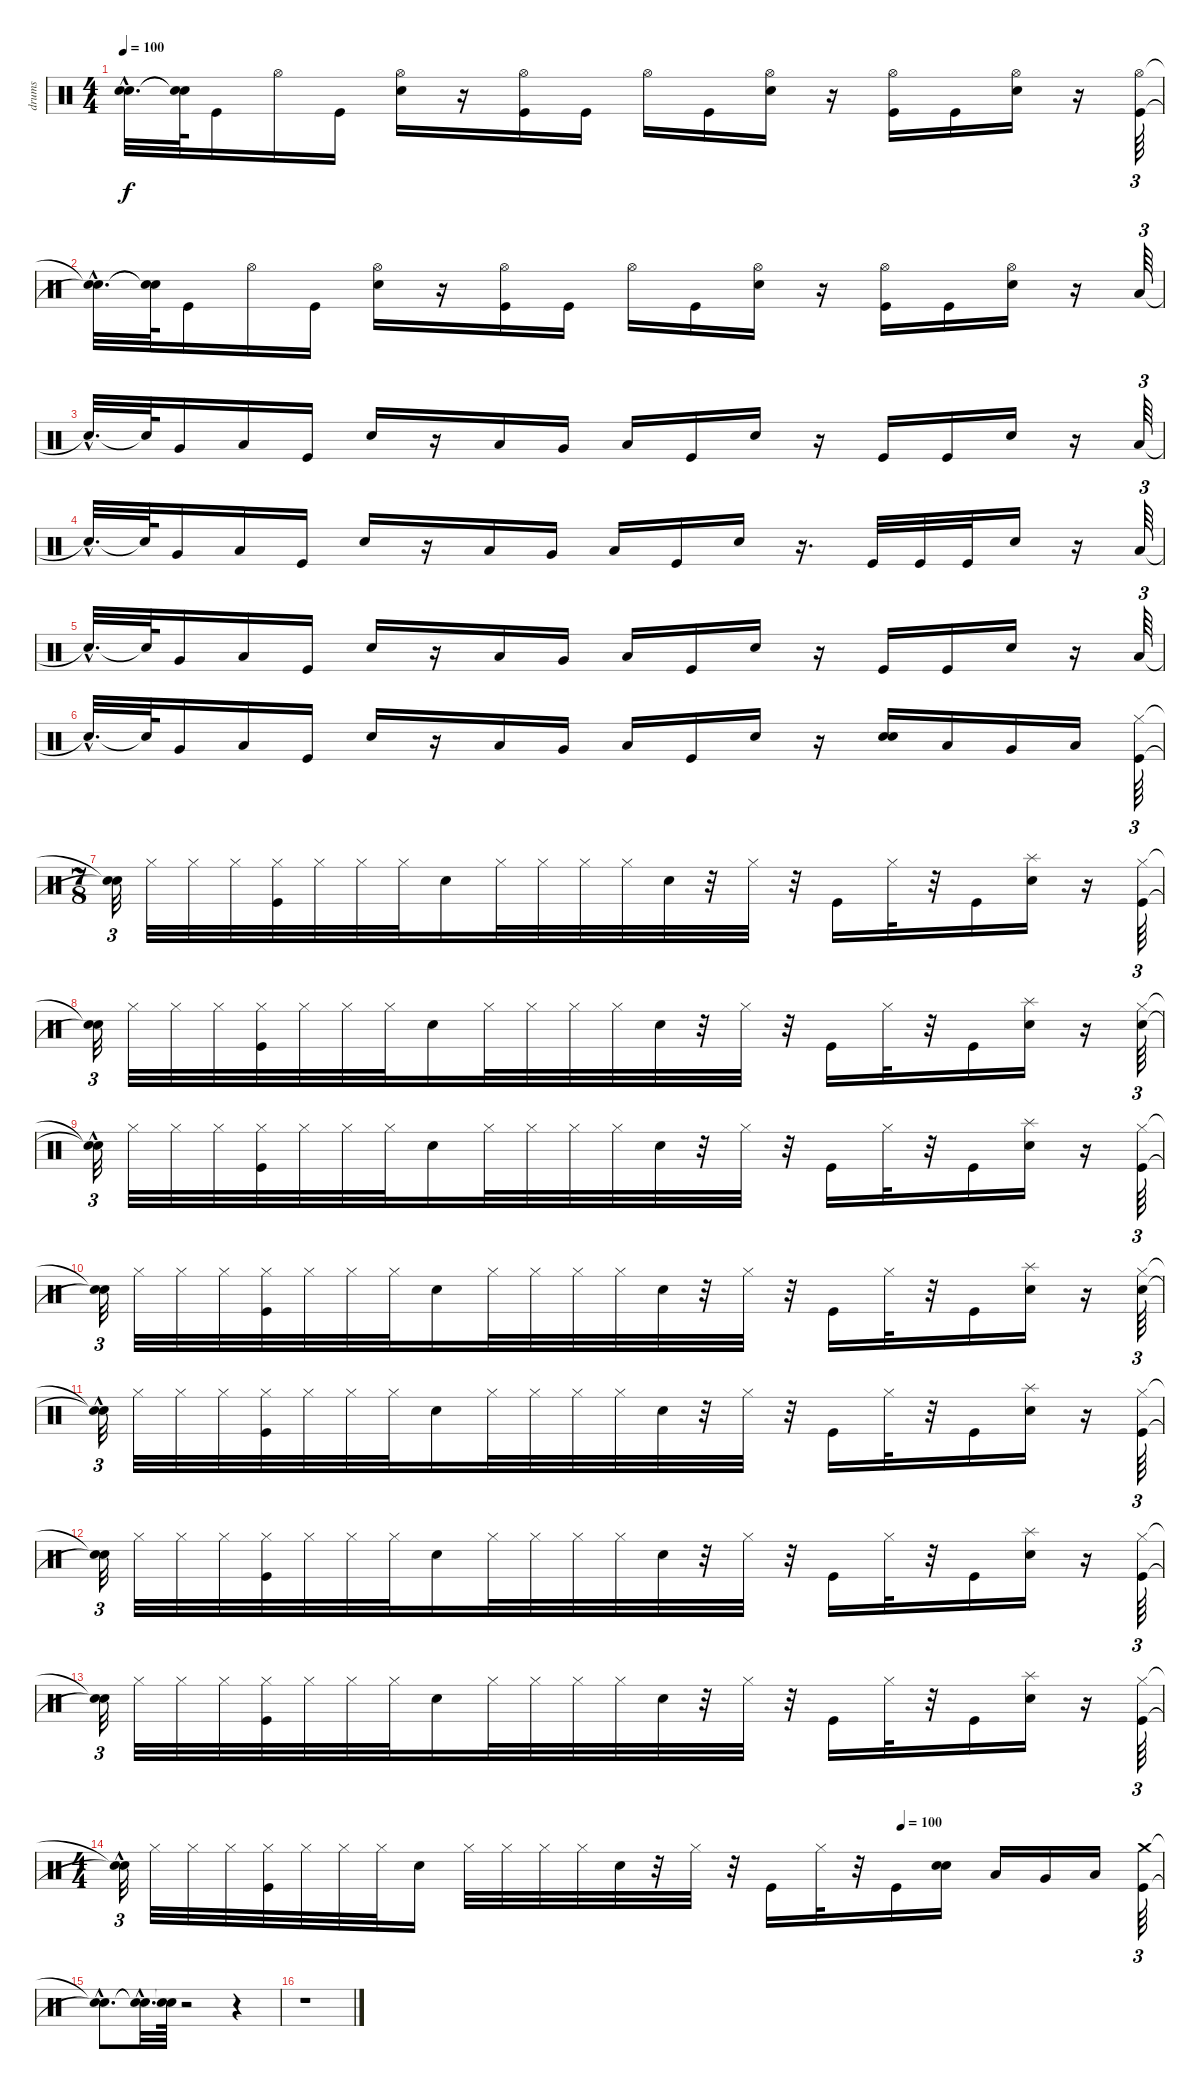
\track ("drums" "drums") {instrument percussion}
\staff {score}
\articulation defaults
\ts (4 4)
\tempo 100
\clef neutral
\ks c
("Snare (hit)"{hac t} "Snare (hit)"{hac t}).32{d dy f} ("Snare (hit)"{t} "Snare (hit)"{t}).64 "Kick (hit)".16 "Hi-Hat (open)".16 "Kick (hit)".16 ("Electric Snare (hit)" "Hi-Hat (open)").16 r.16 ("Hi-Hat (open)" "Kick (hit)").16 "Kick (hit)".16 "Hi-Hat (open)".16 "Kick (hit)".16 ("Hi-Hat (open)" "Electric Snare (hit)").16 r.16 ("Kick (hit)" "Hi-Hat (open)").16 "Kick (hit)".16 ("Hi-Hat (open)" "Electric Snare (hit)").16 r.16 ("Kick (hit)" "Hi-Hat (open)").64{tu (3 2)} |
("Snare (hit)"{hac t} "Snare (hit)"{hac t}).32{d} ("Snare (hit)"{t} "Snare (hit)"{t}).64 "Kick (hit)".16 "Hi-Hat (open)".16 "Kick (hit)".16 ("Hi-Hat (open)" "Electric Snare (hit)").16 r.16 ("Hi-Hat (open)" "Kick (hit)").16 "Kick (hit)".16 "Hi-Hat (open)".16 "Kick (hit)".16 ("Hi-Hat (open)" "Electric Snare (hit)").16 r.16 ("Hi-Hat (open)" "Kick (hit)").16 "Kick (hit)".16 ("Hi-Hat (open)" "Electric Snare (hit)").16 r.16 "Low Floor Tom (hit)".64{tu (3 2)} |
"Snare (hit)"{hac t}.32{d} "Snare (hit)"{t}.64 "Very Low Tom (hit)".16 "Low Floor Tom (hit)".16 "Kick (hit)".16 "Electric Snare (hit)".16 r.16 "Low Floor Tom (hit)".16 "Very Low Tom (hit)".16 "Low Floor Tom (hit)".16 "Kick (hit)".16 "Electric Snare (hit)".16 r.16 "Kick (hit)".16 "Kick (hit)".16 "Electric Snare (hit)".16 r.16 "Low Floor Tom (hit)".64{tu (3 2)} |
"Snare (hit)"{hac t}.32{d} "Snare (hit)"{t}.64 "Very Low Tom (hit)".16 "Low Floor Tom (hit)".16 "Kick (hit)".16 "Electric Snare (hit)".16 r.16 "Low Floor Tom (hit)".16 "Very Low Tom (hit)".16 "Low Floor Tom (hit)".16 "Kick (hit)".16 "Electric Snare (hit)".16 r.16{d} "Kick (hit)".32 "Kick (hit)".32 "Kick (hit)".32 "Electric Snare (hit)".16 r.16 "Low Floor Tom (hit)".64{tu (3 2)} |
"Snare (hit)"{hac t}.32{d} "Snare (hit)"{t}.64 "Very Low Tom (hit)".16 "Low Floor Tom (hit)".16 "Kick (hit)".16 "Electric Snare (hit)".16 r.16 "Low Floor Tom (hit)".16 "Very Low Tom (hit)".16 "Low Floor Tom (hit)".16 "Kick (hit)".16 "Electric Snare (hit)".16 r.16 "Kick (hit)".16 "Kick (hit)".16 "Electric Snare (hit)".16 r.16 "Low Floor Tom (hit)".64{tu (3 2)} |
"Snare (hit)"{hac t}.32{d} "Snare (hit)"{t}.64 "Very Low Tom (hit)".16 "Low Floor Tom (hit)".16 "Kick (hit)".16 "Electric Snare (hit)".16 r.16 "Low Floor Tom (hit)".16 "Very Low Tom (hit)".16 "Low Floor Tom (hit)".16 "Kick (hit)".16 "Electric Snare (hit)".16 r.16 ("Snare (hit) 2" "Electric Snare (hit)").16 "Low Tom (hit)".16 "Very Low Tom (hit)".16 "Low Floor Tom (hit)".16 ("Hi-Hat (closed)" "Kick (hit)").64{tu (3 2)} |
\ts (7 8)
("Snare (hit)"{t} "Snare (hit)"{t}).32{tu (3 2)} "Hi-Hat (closed)".32 "Hi-Hat (closed)".32 "Hi-Hat (closed)".32 ("Kick (hit)" "Hi-Hat (closed)").32 "Hi-Hat (closed)".32 "Hi-Hat (closed)".32 "Hi-Hat (closed)".32 "Electric Snare (hit)".16 "Hi-Hat (closed)".32 "Hi-Hat (closed)".32 "Hi-Hat (closed)".32 "Hi-Hat (closed)".32 "Electric Snare (hit)".32 r.32 "Hi-Hat (closed)".32 r.32 "Kick (hit)".16 "Hi-Hat (closed)".32 r.32 "Kick (hit)".16 ("Splash (hit)" "Electric Snare (hit)").16 r.16 ("Hi-Hat (closed)" "Kick (hit)").64{tu (3 2)} |
("Snare (hit)"{t} "Snare (hit)"{t}).32{tu (3 2)} "Hi-Hat (closed)".32 "Hi-Hat (closed)".32 "Hi-Hat (closed)".32 ("Kick (hit)" "Hi-Hat (closed)").32 "Hi-Hat (closed)".32 "Hi-Hat (closed)".32 "Hi-Hat (closed)".32 "Electric Snare (hit)".16 "Hi-Hat (closed)".32 "Hi-Hat (closed)".32 "Hi-Hat (closed)".32 "Hi-Hat (closed)".32 "Electric Snare (hit)".32 r.32 "Hi-Hat (closed)".32 r.32 "Kick (hit)".16 "Hi-Hat (closed)".32 r.32 "Kick (hit)".16 ("Splash (hit)" "Electric Snare (hit)").16 r.16 ("Hi-Hat (closed)" "Electric Snare (hit)").64{tu (3 2)} |
("Snare (hit)"{t} "Snare (hit)"{hac t}).32{tu (3 2)} "Hi-Hat (closed)".32 "Hi-Hat (closed)".32 "Hi-Hat (closed)".32 ("Kick (hit)" "Hi-Hat (closed)").32 "Hi-Hat (closed)".32 "Hi-Hat (closed)".32 "Hi-Hat (closed)".32 "Electric Snare (hit)".16 "Hi-Hat (closed)".32 "Hi-Hat (closed)".32 "Hi-Hat (closed)".32 "Hi-Hat (closed)".32 "Electric Snare (hit)".32 r.32 "Hi-Hat (closed)".32 r.32 "Kick (hit)".16 "Hi-Hat (closed)".32 r.32 "Kick (hit)".16 ("Splash (hit)" "Electric Snare (hit)").16 r.16 ("Hi-Hat (closed)" "Kick (hit)").64{tu (3 2)} |
("Snare (hit)"{t} "Snare (hit)"{t}).32{tu (3 2)} "Hi-Hat (closed)".32 "Hi-Hat (closed)".32 "Hi-Hat (closed)".32 ("Kick (hit)" "Hi-Hat (closed)").32 "Hi-Hat (closed)".32 "Hi-Hat (closed)".32 "Hi-Hat (closed)".32 "Electric Snare (hit)".16 "Hi-Hat (closed)".32 "Hi-Hat (closed)".32 "Hi-Hat (closed)".32 "Hi-Hat (closed)".32 "Electric Snare (hit)".32 r.32 "Hi-Hat (closed)".32 r.32 "Kick (hit)".16 "Hi-Hat (closed)".32 r.32 "Kick (hit)".16 ("Splash (hit)" "Electric Snare (hit)").16 r.16 ("Hi-Hat (closed)" "Electric Snare (hit)").64{tu (3 2)} |
("Snare (hit)"{t} "Snare (hit)"{hac t}).32{tu (3 2)} "Hi-Hat (closed)".32 "Hi-Hat (closed)".32 "Hi-Hat (closed)".32 ("Kick (hit)" "Hi-Hat (closed)").32 "Hi-Hat (closed)".32 "Hi-Hat (closed)".32 "Hi-Hat (closed)".32 "Electric Snare (hit)".16 "Hi-Hat (closed)".32 "Hi-Hat (closed)".32 "Hi-Hat (closed)".32 "Hi-Hat (closed)".32 "Electric Snare (hit)".32 r.32 "Hi-Hat (closed)".32 r.32 "Kick (hit)".16 "Hi-Hat (closed)".32 r.32 "Kick (hit)".16 ("Splash (hit)" "Electric Snare (hit)").16 r.16 ("Hi-Hat (closed)" "Kick (hit)").64{tu (3 2)} |
("Snare (hit)"{t} "Snare (hit)"{t}).32{tu (3 2)} "Hi-Hat (closed)".32 "Hi-Hat (closed)".32 "Hi-Hat (closed)".32 ("Kick (hit)" "Hi-Hat (closed)").32 "Hi-Hat (closed)".32 "Hi-Hat (closed)".32 "Hi-Hat (closed)".32 "Electric Snare (hit)".16 "Hi-Hat (closed)".32 "Hi-Hat (closed)".32 "Hi-Hat (closed)".32 "Hi-Hat (closed)".32 "Electric Snare (hit)".32 r.32 "Hi-Hat (closed)".32 r.32 "Kick (hit)".16 "Hi-Hat (closed)".32 r.32 "Kick (hit)".16 ("Splash (hit)" "Electric Snare (hit)").16 r.16 ("Hi-Hat (closed)" "Kick (hit)").64{tu (3 2)} |
("Snare (hit)"{t} "Snare (hit)"{t}).32{tu (3 2)} "Hi-Hat (closed)".32 "Hi-Hat (closed)".32 "Hi-Hat (closed)".32 ("Kick (hit)" "Hi-Hat (closed)").32 "Hi-Hat (closed)".32 "Hi-Hat (closed)".32 "Hi-Hat (closed)".32 "Electric Snare (hit)".16 "Hi-Hat (closed)".32 "Hi-Hat (closed)".32 "Hi-Hat (closed)".32 "Hi-Hat (closed)".32 "Electric Snare (hit)".32 r.32 "Hi-Hat (closed)".32 r.32 "Kick (hit)".16 "Hi-Hat (closed)".32 r.32 "Kick (hit)".16 ("Splash (hit)" "Electric Snare (hit)").16 r.16 ("Hi-Hat (closed)" "Kick (hit)").64{tu (3 2)} |
\ts (4 4)
\tempo (100 0.75)
("Snare (hit)"{t} "Snare (hit)"{hac t}).32{tu (3 2)} "Hi-Hat (closed)".32 "Hi-Hat (closed)".32 "Hi-Hat (closed)".32 ("Kick (hit)" "Hi-Hat (closed)").32 "Hi-Hat (closed)".32 "Hi-Hat (closed)".32 "Hi-Hat (closed)".32 "Electric Snare (hit)".16 "Hi-Hat (closed)".32 "Hi-Hat (closed)".32 "Hi-Hat (closed)".32 "Hi-Hat (closed)".32 "Electric Snare (hit)".32 r.32 "Hi-Hat (closed)".32 r.32 "Kick (hit)".16 "Hi-Hat (closed)".32 r.32 "Kick (hit)".16 ("Electric Snare (hit)" "Electric Snare (hit)").16 "Low Tom (hit)".16 "Very Low Tom (hit)".16 "Low Floor Tom (hit)".16 ("Crash medium (hit)" "Kick (hit)").64{tu (3 2)} |
("Snare (hit)"{hac t} "Snare (hit)"{hac t}).8{d} ("Snare (hit)"{hac t} "Snare (hit)"{hac t}).32{d} ("Snare (hit)"{t} "Snare (hit)"{t}).64 r.2 r.4 |
r.1
